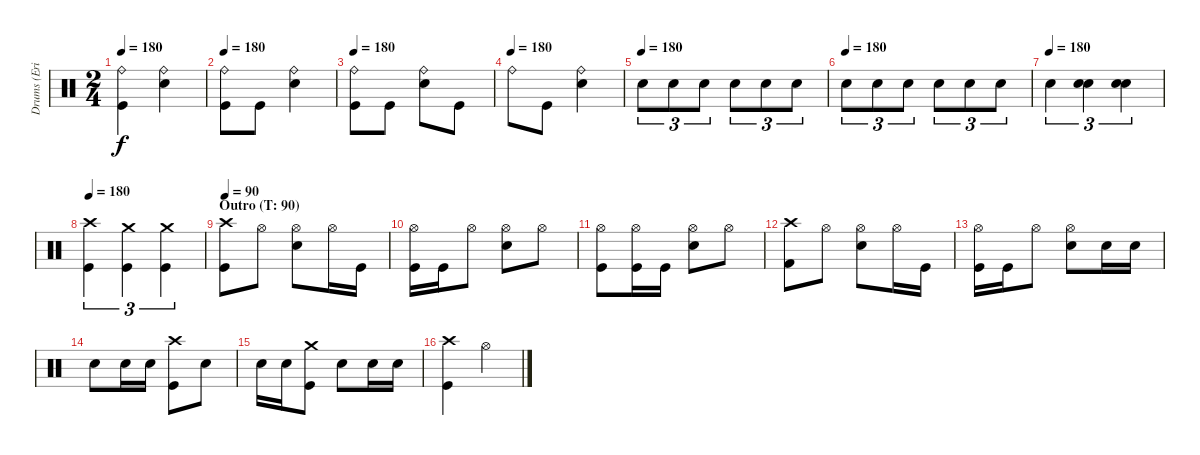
\track ("Drums (Eric Singer)" "Drums (Eri") {instrument percussion}
\staff {score}
\articulation defaults
\ts (2 4)
\tempo 180
\clef neutral
\ks c
("Ride (bell)" "Kick (hit)").4{dy f} ("Ride (bell)" "Electric Snare (hit)").4 |
\tempo 180
("Ride (bell)" "Kick (hit)").8 "Kick (hit)".8 ("Ride (bell)" "Electric Snare (hit)").4 |
\tempo 180
("Ride (bell)" "Kick (hit)").8 "Kick (hit)".8 ("Ride (bell)" "Electric Snare (hit)").8 "Kick (hit)".8 |
\tempo (180)
"Ride (bell)".8 "Kick (hit)".8 ("Ride (bell)" "Electric Snare (hit)").4 |
\tempo (180)
"Electric Snare (hit)".8{tu (3 2)} "Electric Snare (hit)".8{tu (3 2)} "Electric Snare (hit)".8{tu (3 2)} "Electric Snare (hit)".8{tu (3 2)} "Electric Snare (hit)".8{tu (3 2)} "Electric Snare (hit)".8{tu (3 2)} |
\tempo (180)
"Electric Snare (hit)".8{tu (3 2)} "Electric Snare (hit)".8{tu (3 2)} "Electric Snare (hit)".8{tu (3 2)} "Electric Snare (hit)".8{tu (3 2)} "Electric Snare (hit)".8{tu (3 2)} "Electric Snare (hit)".8{tu (3 2)} |
\tempo (180)
"Electric Snare (hit)".4{tu (3 2)} ("Electric Snare (hit)" "Electric Snare (hit)").4{tu (3 2)} ("Electric Snare (hit)" "Electric Snare (hit)").4{tu (3 2)} |
\tempo 180
("Crash high (hit)" "Kick (hit)").4{tu (3 2)} ("Crash medium (hit)" "Kick (hit)").4{tu (3 2)} ("Crash medium (hit)" "Kick (hit)").4{tu (3 2)} |
\section ("" "Outro (T: 90)")
\tempo 90
("Crash high (hit)" "Kick (hit)").8 "Hi-Hat (open)".8 ("Hi-Hat (open)" "Electric Snare (hit)").8 "Hi-Hat (open)".16 "Kick (hit)".16 |
("Hi-Hat (open)" "Kick (hit)").16 "Kick (hit)".16 "Hi-Hat (open)".8 ("Hi-Hat (open)" "Electric Snare (hit)").8 "Hi-Hat (open)".8 |
("Hi-Hat (open)" "Kick (hit)").8 ("Hi-Hat (open)" "Kick (hit)").16 "Kick (hit)".16 ("Hi-Hat (open)" "Electric Snare (hit)").8 "Hi-Hat (open)".8 |
("Crash high (hit)" "Kick (hit) 2").8 "Hi-Hat (open)".8 ("Hi-Hat (open)" "Electric Snare (hit)").8 "Hi-Hat (open)".16 "Kick (hit)".16 |
("Hi-Hat (open)" "Kick (hit)").16 "Kick (hit)".16 "Hi-Hat (open)".8 ("Hi-Hat (open)" "Electric Snare (hit)").8 "Electric Snare (hit)".16 "Electric Snare (hit)".16 |
"Electric Snare (hit)".8 "Electric Snare (hit)".16 "Electric Snare (hit)".16 ("Crash high (hit)" "Kick (hit)").8 "Electric Snare (hit)".8 |
"Electric Snare (hit)".16 "Electric Snare (hit)".16 ("Crash medium (hit)" "Kick (hit)").8 "Electric Snare (hit)".8 "Electric Snare (hit)".16 "Electric Snare (hit)".16 |
("Crash high (hit)" "Kick (hit)").4 "Hi-Hat (open)".4
